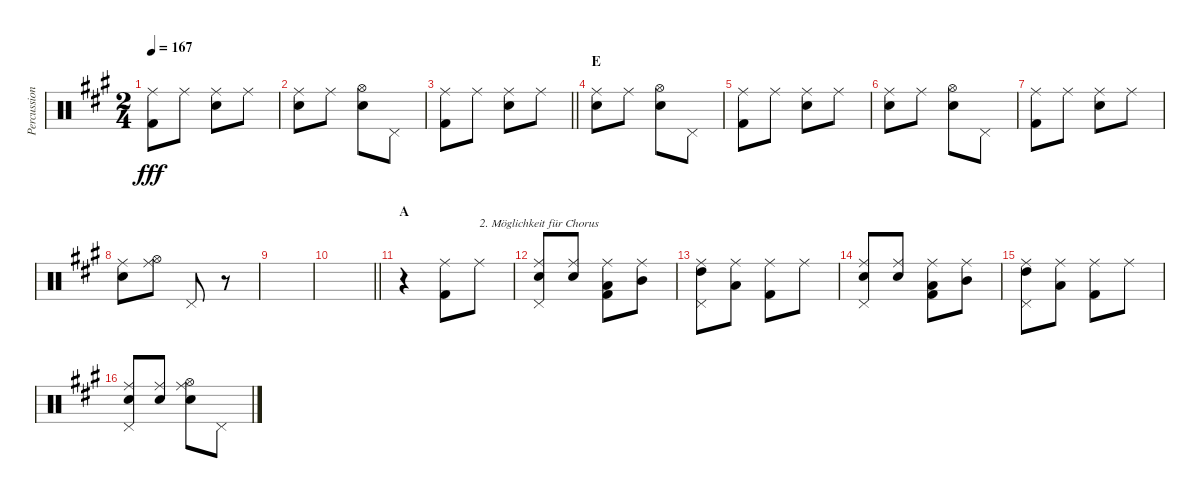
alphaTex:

\track ("Percussion" "Percussion") {instrument percussion}
\staff {score}
\articulation defaults
\ts (2 4)
\tempo 167
\clef neutral
\ks a
("Ride (middle)" "Kick (hit) 2").8{dy fff} "Ride (middle)".8 ("Ride (middle)" "Snare (hit) 2").8 "Ride (middle)".8 |
("Ride (middle)" "Snare (hit) 2").8 "Ride (middle)".8 ("Hi-Hat (open)" "Snare (hit) 2").8 "Pedal Hi-Hat (hit)".8 |
\barLineRight lightlight
("Ride (middle)" "Kick (hit) 2").8 "Ride (middle)".8 ("Ride (middle)" "Snare (hit) 2").8 "Ride (middle)".8 |
\section ("" "E")
("Ride (middle)" "Snare (hit) 2").8 "Ride (middle)".8 ("Hi-Hat (open)" "Snare (hit) 2").8 "Pedal Hi-Hat (hit)".8 |
("Ride (middle)" "Kick (hit) 2").8 "Ride (middle)".8 ("Ride (middle)" "Snare (hit) 2").8 "Ride (middle)".8 |
("Ride (middle)" "Snare (hit) 2").8 "Ride (middle)".8 ("Hi-Hat (open)" "Snare (hit) 2").8 "Pedal Hi-Hat (hit)".8 |
("Ride (middle)" "Kick (hit) 2").8 "Ride (middle)".8 ("Ride (middle)" "Snare (hit) 2").8 "Ride (middle)".8 |
("Ride (middle)" "Snare (hit) 2").8 ("Ride (middle)" "Hi-Hat (open)").8 "Pedal Hi-Hat (hit)".8 r.8 |
|
\barLineRight lightlight
|
\section ("" "A")
r.4 ("Ride (middle)" "Kick (hit) 2").8 "Ride (middle)".8{txt "2. Möglichkeit für Chorus"} |
("Ride (middle)" "Pedal Hi-Hat (hit)" "Snare (hit) 2").8 ("Ride (middle)" "Snare (hit) 2").8 ("Ride (middle)" "Low Tom (hit)" "Kick (hit) 2").8 ("Ride (middle)" "Mid Tom (hit)").8 |
("Ride (middle)" "High Tom (hit)" "Pedal Hi-Hat (hit)").8 ("Ride (middle)" "Low Tom (hit)").8 ("Ride (middle)" "Kick (hit) 2").8 "Ride (middle)".8 |
("Ride (middle)" "Pedal Hi-Hat (hit)" "Snare (hit) 2").8 ("Ride (middle)" "Snare (hit) 2").8 ("Ride (middle)" "Low Tom (hit)" "Kick (hit) 2").8 ("Ride (middle)" "Mid Tom (hit)").8 |
("Ride (middle)" "High Tom (hit)" "Pedal Hi-Hat (hit)").8 ("Ride (middle)" "Low Tom (hit)").8 ("Ride (middle)" "Kick (hit) 2").8 "Ride (middle)".8 |
("Ride (middle)" "Pedal Hi-Hat (hit)" "Snare (hit) 2").8 ("Ride (middle)" "Snare (hit) 2").8 ("Ride (middle)" "Hi-Hat (open)" "Snare (hit) 2").8 "Pedal Hi-Hat (hit)".8
